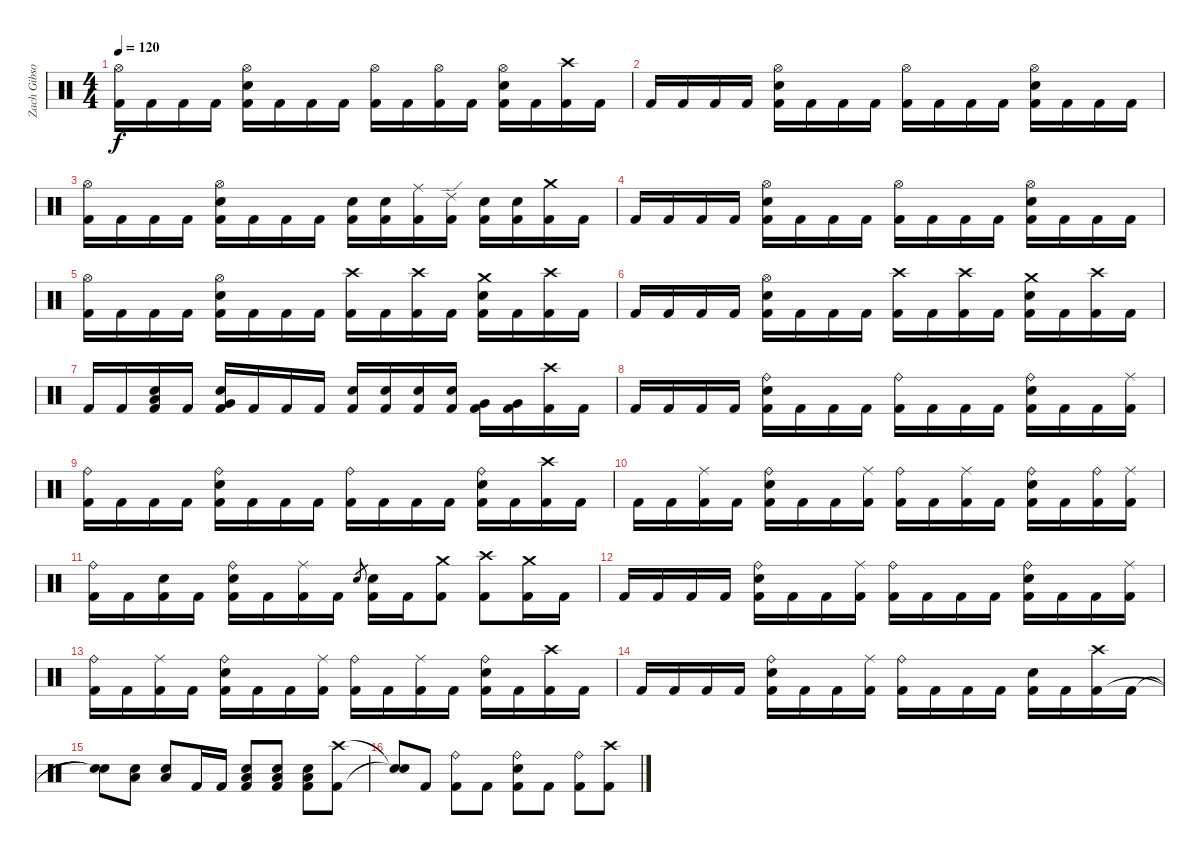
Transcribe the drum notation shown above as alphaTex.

\track ("Zach Gibson (Drums)" "Zach Gibso") {instrument percussion}
\staff {score}
\articulation defaults
\ts (4 4)
\tempo 120
\clef neutral
\ks c
("Hi-Hat (open)" "Kick (hit) 2").16{dy f} "Kick (hit) 2".16 "Kick (hit) 2".16 "Kick (hit) 2".16 ("Hi-Hat (open)" "Snare (hit) 2" "Kick (hit) 2").16 "Kick (hit) 2".16 "Kick (hit) 2".16 "Kick (hit) 2".16 ("Hi-Hat (open)" "Kick (hit) 2").16 "Kick (hit) 2".16 ("Hi-Hat (open)" "Kick (hit) 2").16 "Kick (hit) 2".16 ("Hi-Hat (open)" "Snare (hit) 2" "Kick (hit) 2").16 "Kick (hit) 2".16 ("Crash high (hit)" "Kick (hit) 2").16 "Kick (hit) 2".16 |
"Kick (hit) 2".16 "Kick (hit) 2".16 "Kick (hit) 2".16 "Kick (hit) 2".16 ("Hi-Hat (open)" "Snare (hit) 2" "Kick (hit) 2").16 "Kick (hit) 2".16 "Kick (hit) 2".16 "Kick (hit) 2".16 ("Hi-Hat (open)" "Kick (hit) 2").16 "Kick (hit) 2".16 "Kick (hit) 2".16 "Kick (hit) 2".16 ("Hi-Hat (open)" "Snare (hit) 2" "Kick (hit) 2").16 "Kick (hit) 2".16 "Kick (hit) 2".16 "Kick (hit) 2".16 |
("Hi-Hat (open)" "Kick (hit) 2").16 "Kick (hit) 2".16 "Kick (hit) 2".16 "Kick (hit) 2".16 ("Hi-Hat (open)" "Snare (hit) 2" "Kick (hit) 2").16 "Kick (hit) 2".16 "Kick (hit) 2".16 "Kick (hit) 2".16 ("Snare (hit) 2" "Kick (hit) 2").16 ("Snare (hit) 2" "Kick (hit) 2").16 ("Ride (middle)" "Kick (hit) 2").16 ("Ride (edge) 2" "Kick (hit) 2").16 ("Snare (hit) 2" "Kick (hit) 2").16 ("Snare (hit) 2" "Kick (hit) 2").16 ("Crash medium (hit)" "Kick (hit) 2").16 "Kick (hit) 2".16 |
"Kick (hit) 2".16 "Kick (hit) 2".16 "Kick (hit) 2".16 "Kick (hit) 2".16 ("Hi-Hat (open)" "Snare (hit) 2" "Kick (hit) 2").16 "Kick (hit) 2".16 "Kick (hit) 2".16 "Kick (hit) 2".16 ("Hi-Hat (open)" "Kick (hit) 2").16 "Kick (hit) 2".16 "Kick (hit) 2".16 "Kick (hit) 2".16 ("Hi-Hat (open)" "Snare (hit) 2" "Kick (hit) 2").16 "Kick (hit) 2".16 "Kick (hit) 2".16 "Kick (hit) 2".16 |
("Hi-Hat (open)" "Kick (hit) 2").16 "Kick (hit) 2".16 "Kick (hit) 2".16 "Kick (hit) 2".16 ("Hi-Hat (open)" "Snare (hit) 2" "Kick (hit) 2").16 "Kick (hit) 2".16 "Kick (hit) 2".16 "Kick (hit) 2".16 ("Crash high (hit)" "Kick (hit) 2").16 "Kick (hit) 2".16 ("Crash high (hit)" "Kick (hit) 2").16 "Kick (hit) 2".16 ("Crash medium (hit)" "Snare (hit) 2" "Kick (hit) 2").16 "Kick (hit) 2".16 ("Crash high (hit)" "Kick (hit) 2").16 "Kick (hit) 2".16 |
"Kick (hit) 2".16 "Kick (hit) 2".16 "Kick (hit) 2".16 "Kick (hit) 2".16 ("Hi-Hat (open)" "Snare (hit) 2" "Kick (hit) 2").16 "Kick (hit) 2".16 "Kick (hit) 2".16 "Kick (hit) 2".16 ("Crash high (hit)" "Kick (hit) 2").16 "Kick (hit) 2".16 ("Crash high (hit)" "Kick (hit) 2").16 "Kick (hit) 2".16 ("Crash medium (hit)" "Snare (hit) 2" "Kick (hit) 2").16 "Kick (hit) 2".16 ("Crash high (hit)" "Kick (hit) 2").16 "Kick (hit) 2".16 |
"Kick (hit) 2".16 "Kick (hit) 2".16 ("Low Floor Tom (hit)" "Snare (hit) 2" "Kick (hit) 2").16 "Kick (hit) 2".16 ("Very Low Tom (hit)" "Snare (hit) 2" "Kick (hit) 2").16 "Kick (hit) 2".16 "Kick (hit) 2".16 "Kick (hit) 2".16 ("Snare (hit) 2" "Kick (hit) 2").16 ("Snare (hit) 2" "Kick (hit) 2").16 ("Snare (hit) 2" "Kick (hit) 2").16 ("Snare (hit) 2" "Kick (hit) 2").16 ("Very Low Tom (hit)" "Kick (hit) 2").16 ("Very Low Tom (hit)" "Kick (hit) 2").16 ("Crash high (hit)" "Kick (hit) 2").16 "Kick (hit) 2".16 |
"Kick (hit) 2".16 "Kick (hit) 2".16 "Kick (hit) 2".16 "Kick (hit) 2".16 ("Ride (bell)" "Snare (hit) 2" "Kick (hit) 2").16 "Kick (hit) 2".16 "Kick (hit) 2".16 "Kick (hit) 2".16 ("Ride (bell)" "Kick (hit) 2").16 "Kick (hit) 2".16 "Kick (hit) 2".16 "Kick (hit) 2".16 ("Ride (bell)" "Snare (hit) 2" "Kick (hit) 2").16 "Kick (hit) 2".16 "Kick (hit) 2".16 ("Ride (middle)" "Kick (hit) 2").16 |
("Ride (bell)" "Kick (hit) 2").16 "Kick (hit) 2".16 "Kick (hit) 2".16 "Kick (hit) 2".16 ("Ride (bell)" "Snare (hit) 2" "Kick (hit) 2").16 "Kick (hit) 2".16 "Kick (hit) 2".16 "Kick (hit) 2".16 ("Ride (bell)" "Kick (hit) 2").16 "Kick (hit) 2".16 "Kick (hit) 2".16 "Kick (hit) 2".16 ("Ride (bell)" "Snare (hit) 2" "Kick (hit) 2").16 "Kick (hit) 2".16 ("Crash high (hit)" "Kick (hit) 2").16 "Kick (hit) 2".16 |
"Kick (hit) 2".16 "Kick (hit) 2".16 ("Ride (middle)" "Kick (hit) 2").16 "Kick (hit) 2".16 ("Ride (bell)" "Snare (hit) 2" "Kick (hit) 2").16 "Kick (hit) 2".16 "Kick (hit) 2".16 ("Ride (middle)" "Kick (hit) 2").16 ("Ride (bell)" "Kick (hit) 2").16 "Kick (hit) 2".16 ("Ride (middle)" "Kick (hit) 2").16 "Kick (hit) 2".16 ("Ride (bell)" "Snare (hit) 2" "Kick (hit) 2").16 "Kick (hit) 2".16 ("Ride (bell)" "Kick (hit) 2").16 ("Ride (middle)" "Kick (hit) 2").16 |
("Ride (bell)" "Kick (hit) 2").16 "Kick (hit) 2".16 ("Snare (hit)" "Kick (hit) 2").16 "Kick (hit) 2".16 ("Ride (bell)" "Snare (hit) 2" "Kick (hit) 2").16 "Kick (hit) 2".16 ("Ride (middle)" "Kick (hit) 2").16 "Kick (hit) 2".16 "Snare (hit) 2".8{gr} ("Snare (hit) 2" "Kick (hit) 2").16 "Kick (hit) 2".16 ("Crash medium (hit)" "Kick (hit) 2").8 ("Crash high (hit)" "Kick (hit) 2").8 ("Crash medium (hit)" "Kick (hit) 2").16 "Kick (hit) 2".16 |
"Kick (hit) 2".16 "Kick (hit) 2".16 "Kick (hit) 2".16 "Kick (hit) 2".16 ("Ride (bell)" "Snare (hit) 2" "Kick (hit) 2").16 "Kick (hit) 2".16 "Kick (hit) 2".16 ("Ride (middle)" "Kick (hit) 2").16 ("Ride (bell)" "Kick (hit) 2").16 "Kick (hit) 2".16 "Kick (hit) 2".16 "Kick (hit) 2".16 ("Ride (bell)" "Snare (hit) 2" "Kick (hit) 2").16 "Kick (hit) 2".16 "Kick (hit) 2".16 ("Ride (middle)" "Kick (hit) 2").16 |
("Ride (bell)" "Kick (hit) 2").16 "Kick (hit) 2".16 ("Ride (middle)" "Kick (hit) 2").16 "Kick (hit) 2".16 ("Ride (bell)" "Snare (hit) 2" "Kick (hit) 2").16 "Kick (hit) 2".16 "Kick (hit) 2".16 ("Ride (middle)" "Kick (hit) 2").16 ("Ride (bell)" "Kick (hit) 2").16 "Kick (hit) 2".16 ("Ride (middle)" "Kick (hit) 2").16 "Kick (hit) 2".16 ("Ride (bell)" "Snare (hit) 2" "Kick (hit) 2").16 "Kick (hit) 2".16 ("Crash high (hit)" "Kick (hit) 2").16 "Kick (hit) 2".16 |
"Kick (hit) 2".16 "Kick (hit) 2".16 "Kick (hit) 2".16 "Kick (hit) 2".16 ("Ride (bell)" "Snare (hit) 2" "Kick (hit) 2").16 "Kick (hit) 2".16 "Kick (hit) 2".16 ("Ride (middle)" "Kick (hit) 2").16 ("Ride (bell)" "Kick (hit) 2").16 "Kick (hit) 2".16 "Kick (hit) 2".16 "Kick (hit) 2".16 ("Snare (hit) 2" "Kick (hit) 2").16 "Kick (hit) 2".16 ("Crash high (hit)" "Kick (hit) 2").16 "Kick (hit) 2".16 |
("Snare (hit)"{t} "Snare (hit)"{t}).8 ("Low Floor Tom (hit)" "Snare (hit) 2").8 ("Low Floor Tom (hit)" "Snare (hit) 2").8 "Kick (hit) 2".16 "Kick (hit) 2".16 ("Kick (hit) 2" "Low Floor Tom (hit)" "Snare (hit) 2").8 ("Kick (hit) 2" "Low Floor Tom (hit)" "Snare (hit) 2").8 ("Kick (hit) 2" "Low Floor Tom (hit)" "Snare (hit) 2").8 ("Crash high (hit)" "Kick (hit) 2").8 |
("Snare (hit)"{t} "Snare (hit)"{t}).8 "Kick (hit) 2".8 ("Ride (bell)" "Kick (hit) 2").8 "Kick (hit) 2".8 ("Ride (bell)" "Snare (hit) 2" "Kick (hit) 2").8 "Kick (hit) 2".8 ("Ride (bell)" "Kick (hit) 2").8 ("Crash high (hit)" "Kick (hit) 2").8
